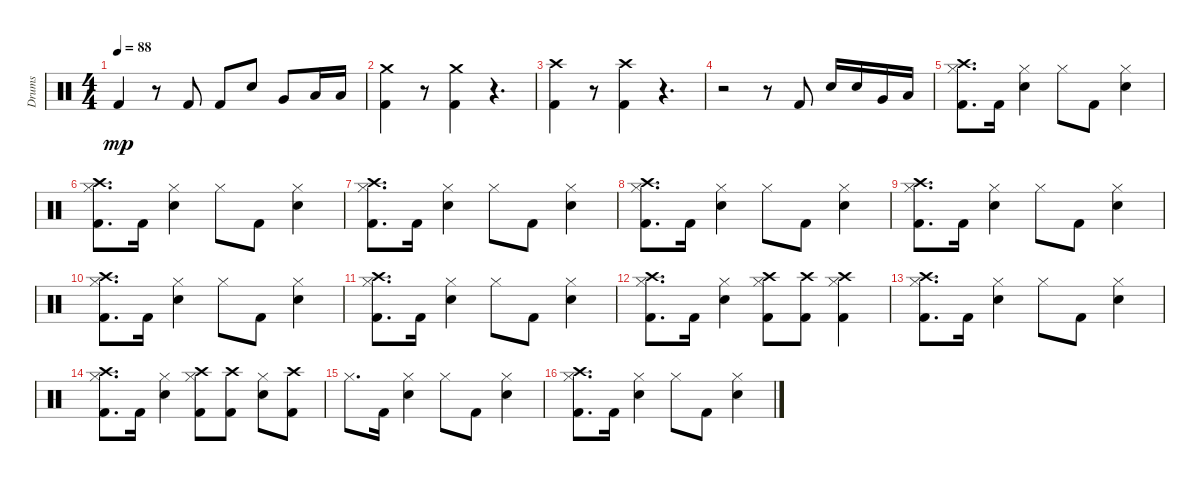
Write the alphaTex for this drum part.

\track ("Drums" "Drums") {instrument percussion}
\staff {score}
\articulation defaults
\ts (4 4)
\tempo 88
\clef neutral
\ks c "Kick (hit) 2".4{dy mp}
r.8 "Kick (hit) 2".8 "Kick (hit) 2".8 "Snare (hit) 2".8 "Very Low Tom (hit)".8 "Low Floor Tom (hit)".16 "Low Floor Tom (hit)".16 |
("Kick (hit) 2" "Crash medium (hit)").4 r.8 ("Kick (hit) 2" "Crash medium (hit)").4 r.4{d} |
("Kick (hit) 2" "Crash high (hit)").4 r.8 ("Kick (hit) 2" "Crash high (hit)").4 r.4{d} |
r.2 r.8 "Kick (hit) 2".8 "Snare (hit) 2".16 "Snare (hit) 2".16 "Very Low Tom (hit)".16 "Low Floor Tom (hit)".16 |
("Hi-Hat (closed)" "Kick (hit) 2" "Crash high (hit)").8{d} "Kick (hit) 2".16 ("Snare (hit) 2" "Hi-Hat (closed)").4 "Hi-Hat (closed)".8 "Kick (hit) 2".8 ("Snare (hit) 2" "Hi-Hat (closed)").4 |
("Hi-Hat (closed)" "Kick (hit) 2" "Crash high (hit)").8{d} "Kick (hit) 2".16 ("Snare (hit) 2" "Hi-Hat (closed)").4 "Hi-Hat (closed)".8 "Kick (hit) 2".8 ("Snare (hit) 2" "Hi-Hat (closed)").4 |
("Hi-Hat (closed)" "Kick (hit) 2" "Crash high (hit)").8{d} "Kick (hit) 2".16 ("Snare (hit) 2" "Hi-Hat (closed)").4 "Hi-Hat (closed)".8 "Kick (hit) 2".8 ("Snare (hit) 2" "Hi-Hat (closed)").4 |
("Hi-Hat (closed)" "Kick (hit) 2" "Crash high (hit)").8{d} "Kick (hit) 2".16 ("Snare (hit) 2" "Hi-Hat (closed)").4 "Hi-Hat (closed)".8 "Kick (hit) 2".8 ("Snare (hit) 2" "Hi-Hat (closed)").4 |
("Hi-Hat (closed)" "Kick (hit) 2" "Crash high (hit)").8{d} "Kick (hit) 2".16 ("Snare (hit) 2" "Hi-Hat (closed)").4 "Hi-Hat (closed)".8 "Kick (hit) 2".8 ("Snare (hit) 2" "Hi-Hat (closed)").4 |
("Hi-Hat (closed)" "Kick (hit) 2" "Crash high (hit)").8{d} "Kick (hit) 2".16 ("Snare (hit) 2" "Hi-Hat (closed)").4 "Hi-Hat (closed)".8 "Kick (hit) 2".8 ("Snare (hit) 2" "Hi-Hat (closed)").4 |
("Hi-Hat (closed)" "Kick (hit) 2" "Crash high (hit)").8{d} "Kick (hit) 2".16 ("Snare (hit) 2" "Hi-Hat (closed)").4 "Hi-Hat (closed)".8 "Kick (hit) 2".8 ("Snare (hit) 2" "Hi-Hat (closed)").4 |
("Crash high (hit)" "Hi-Hat (closed)" "Kick (hit) 2").8{d} "Kick (hit) 2".16 ("Snare (hit) 2" "Hi-Hat (closed)").4 ("Hi-Hat (closed)" "Kick (hit) 2" "Crash high (hit)").8 ("Kick (hit) 2" "Crash high (hit)").8 ("Hi-Hat (closed)" "Crash high (hit)" "Kick (hit) 2").4 |
("Crash high (hit)" "Hi-Hat (closed)" "Kick (hit) 2").8{d} "Kick (hit) 2".16 ("Snare (hit) 2" "Hi-Hat (closed)").4 "Hi-Hat (closed)".8 "Kick (hit) 2".8 ("Snare (hit) 2" "Hi-Hat (closed)").4 |
("Crash high (hit)" "Hi-Hat (closed)" "Kick (hit) 2").8{d} "Kick (hit) 2".16 ("Snare (hit) 2" "Hi-Hat (closed)").4 ("Hi-Hat (closed)" "Kick (hit) 2" "Crash high (hit)").8 ("Kick (hit) 2" "Crash high (hit)").8 ("Hi-Hat (closed)" "Snare (hit) 2").8 ("Crash high (hit)" "Kick (hit) 2").8 |
"Hi-Hat (closed)".8{d} "Kick (hit) 2".16 ("Snare (hit) 2" "Hi-Hat (closed)").4 "Hi-Hat (closed)".8 "Kick (hit) 2".8 ("Snare (hit) 2" "Hi-Hat (closed)").4 |
("Crash high (hit)" "Hi-Hat (closed)" "Kick (hit) 2").8{d} "Kick (hit) 2".16 ("Snare (hit) 2" "Hi-Hat (closed)").4 "Hi-Hat (closed)".8 "Kick (hit) 2".8 ("Snare (hit) 2" "Hi-Hat (closed)").4
